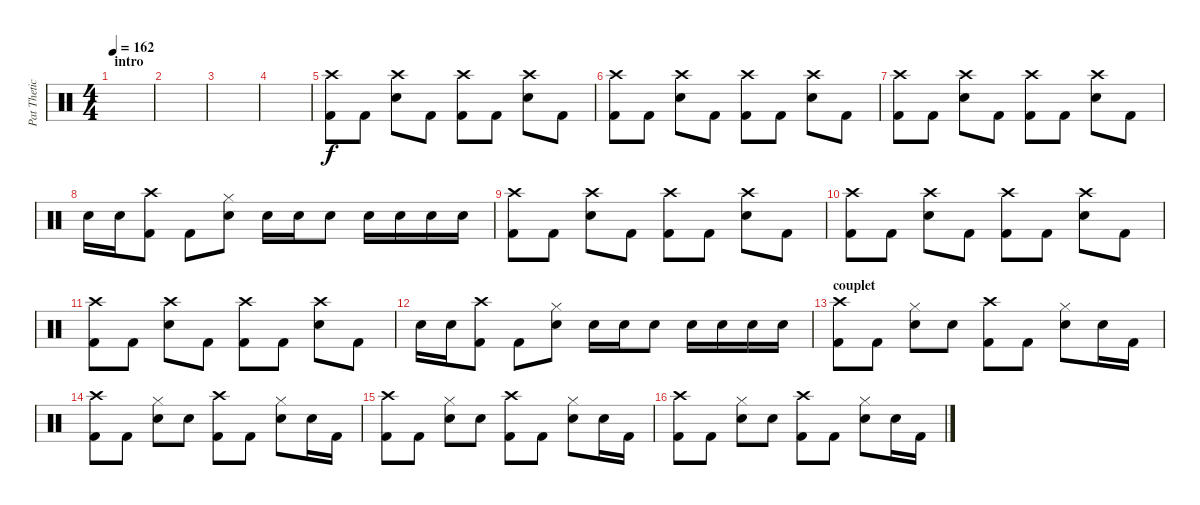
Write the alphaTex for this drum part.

\track ("Pat Thetic" "Pat Thetic") {instrument percussion}
\staff {score}
\articulation defaults
\ts (4 4)
\section ("" "intro")
\tempo 162
\clef neutral
\ks c
|
|
|
|
("Crash high (hit)" "Kick (hit) 2").8 "Kick (hit) 2".8 ("Crash high (hit)" "Snare (hit) 2").8 "Kick (hit) 2".8 ("Crash high (hit)" "Kick (hit) 2").8 "Kick (hit) 2".8 ("Crash high (hit)" "Snare (hit) 2").8 "Kick (hit) 2".8 |
("Crash high (hit)" "Kick (hit) 2").8 "Kick (hit) 2".8 ("Crash high (hit)" "Snare (hit) 2").8 "Kick (hit) 2".8 ("Crash high (hit)" "Kick (hit) 2").8 "Kick (hit) 2".8 ("Crash high (hit)" "Snare (hit) 2").8 "Kick (hit) 2".8 |
("Crash high (hit)" "Kick (hit) 2").8 "Kick (hit) 2".8 ("Crash high (hit)" "Snare (hit) 2").8 "Kick (hit) 2".8 ("Crash high (hit)" "Kick (hit) 2").8 "Kick (hit) 2".8 ("Crash high (hit)" "Snare (hit) 2").8 "Kick (hit) 2".8 |
"Snare (hit) 2".16 "Snare (hit) 2".16 ("Crash high (hit)" "Kick (hit) 2").8 "Kick (hit) 2".8 ("Hi-Hat (closed)" "Snare (hit) 2").8 "Snare (hit) 2".16 "Snare (hit) 2".16 "Snare (hit) 2".8 "Snare (hit) 2".16 "Snare (hit) 2".16 "Snare (hit) 2".16 "Snare (hit) 2".16 |
("Crash high (hit)" "Kick (hit) 2").8 "Kick (hit) 2".8 ("Crash high (hit)" "Snare (hit) 2").8 "Kick (hit) 2".8 ("Crash high (hit)" "Kick (hit) 2").8 "Kick (hit) 2".8 ("Crash high (hit)" "Snare (hit) 2").8 "Kick (hit) 2".8 |
("Crash high (hit)" "Kick (hit) 2").8 "Kick (hit) 2".8 ("Crash high (hit)" "Snare (hit) 2").8 "Kick (hit) 2".8 ("Crash high (hit)" "Kick (hit) 2").8 "Kick (hit) 2".8 ("Crash high (hit)" "Snare (hit) 2").8 "Kick (hit) 2".8 |
("Crash high (hit)" "Kick (hit) 2").8 "Kick (hit) 2".8 ("Crash high (hit)" "Snare (hit) 2").8 "Kick (hit) 2".8 ("Crash high (hit)" "Kick (hit) 2").8 "Kick (hit) 2".8 ("Crash high (hit)" "Snare (hit) 2").8 "Kick (hit) 2".8 |
"Snare (hit) 2".16 "Snare (hit) 2".16 ("Crash high (hit)" "Kick (hit) 2").8 "Kick (hit) 2".8 ("Hi-Hat (closed)" "Snare (hit) 2").8 "Snare (hit) 2".16 "Snare (hit) 2".16 "Snare (hit) 2".8 "Snare (hit) 2".16 "Snare (hit) 2".16 "Snare (hit) 2".16 "Snare (hit) 2".16 |
\section ("" "couplet")
("Crash high (hit)" "Kick (hit) 2").8 "Kick (hit) 2".8 ("Hi-Hat (closed)" "Snare (hit) 2").8 "Snare (hit) 2".8 ("Crash high (hit)" "Kick (hit) 2").8 "Kick (hit) 2".8 ("Hi-Hat (closed)" "Snare (hit) 2").8 "Snare (hit) 2".16 "Kick (hit) 2".16 |
("Crash high (hit)" "Kick (hit) 2").8 "Kick (hit) 2".8 ("Hi-Hat (closed)" "Snare (hit) 2").8 "Snare (hit) 2".8 ("Crash high (hit)" "Kick (hit) 2").8 "Kick (hit) 2".8 ("Hi-Hat (closed)" "Snare (hit) 2").8 "Snare (hit) 2".16 "Kick (hit) 2".16 |
("Crash high (hit)" "Kick (hit) 2").8 "Kick (hit) 2".8 ("Hi-Hat (closed)" "Snare (hit) 2").8 "Snare (hit) 2".8 ("Crash high (hit)" "Kick (hit) 2").8 "Kick (hit) 2".8 ("Hi-Hat (closed)" "Snare (hit) 2").8 "Snare (hit) 2".16 "Kick (hit) 2".16 |
("Crash high (hit)" "Kick (hit) 2").8 "Kick (hit) 2".8 ("Hi-Hat (closed)" "Snare (hit) 2").8 "Snare (hit) 2".8 ("Crash high (hit)" "Kick (hit) 2").8 "Kick (hit) 2".8 ("Hi-Hat (closed)" "Snare (hit) 2").8 "Snare (hit) 2".16 "Kick (hit) 2".16
